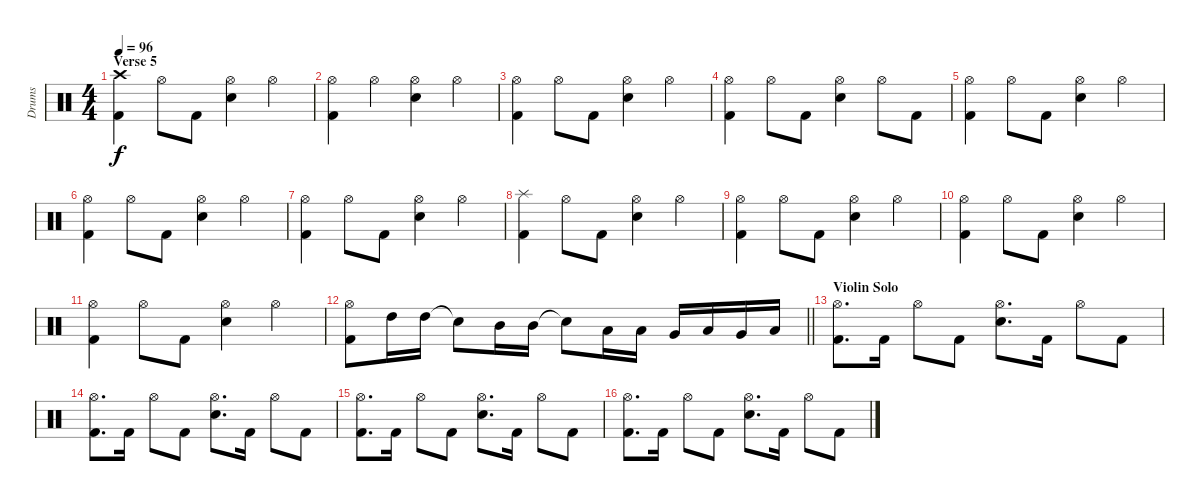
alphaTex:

\track ("Drums" "Drums") {instrument percussion}
\staff {score}
\articulation defaults
\ts (4 4)
\section ("" "Verse 5")
\tempo 96
\clef neutral
\ks c
("Crash high (hit)" "Kick (hit) 2").4{dy f} "Hi-Hat (open)".8 "Kick (hit) 2".8 ("Hi-Hat (open)" "Electric Snare (hit)").4 "Hi-Hat (open)".4 |
("Hi-Hat (open)" "Kick (hit) 2").4 "Hi-Hat (open)".4 ("Hi-Hat (open)" "Electric Snare (hit)").4 "Hi-Hat (open)".4 |
("Hi-Hat (open)" "Kick (hit) 2").4 "Hi-Hat (open)".8 "Kick (hit) 2".8 ("Hi-Hat (open)" "Electric Snare (hit)").4 "Hi-Hat (open)".4 |
("Hi-Hat (open)" "Kick (hit) 2").4 "Hi-Hat (open)".8 "Kick (hit) 2".8 ("Hi-Hat (open)" "Electric Snare (hit)").4 "Hi-Hat (open)".8 "Kick (hit) 2".8 |
("Hi-Hat (open)" "Kick (hit) 2").4 "Hi-Hat (open)".8 "Kick (hit) 2".8 ("Hi-Hat (open)" "Electric Snare (hit)").4 "Hi-Hat (open)".4 |
("Hi-Hat (open)" "Kick (hit) 2").4 "Hi-Hat (open)".8 "Kick (hit) 2".8 ("Hi-Hat (open)" "Electric Snare (hit)").4 "Hi-Hat (open)".4 |
("Hi-Hat (open)" "Kick (hit) 2").4 "Hi-Hat (open)".8 "Kick (hit) 2".8 ("Hi-Hat (open)" "Electric Snare (hit)").4 "Hi-Hat (open)".4 |
("Splash (hit)" "Kick (hit) 2").4 "Hi-Hat (open)".8 "Kick (hit) 2".8 ("Hi-Hat (open)" "Electric Snare (hit)").4 "Hi-Hat (open)".4 |
("Hi-Hat (open)" "Kick (hit) 2").4 "Hi-Hat (open)".8 "Kick (hit) 2".8 ("Hi-Hat (open)" "Electric Snare (hit)").4 "Hi-Hat (open)".4 |
("Hi-Hat (open)" "Kick (hit) 2").4 "Hi-Hat (open)".8 "Kick (hit) 2".8 ("Hi-Hat (open)" "Electric Snare (hit)").4 "Hi-Hat (open)".4 |
("Hi-Hat (open)" "Kick (hit) 2").4 "Hi-Hat (open)".8 "Kick (hit) 2".8 ("Hi-Hat (open)" "Electric Snare (hit)").4 "Hi-Hat (open)".4 |
\barLineRight lightlight
("Hi-Hat (open)" "Kick (hit) 2").8 "High Tom (hit)".16 "High Tom (hit)".16 "Snare (hit)"{t}.8 "Mid Tom (hit)".16 "Mid Tom (hit)".16 "Snare (hit)"{t}.8 "Low Tom (hit)".16 "Low Tom (hit)".16 "Very Low Tom (hit)".16 "Low Floor Tom (hit)".16 "Very Low Tom (hit)".16 "Low Floor Tom (hit)".16 |
\section ("" "Violin Solo")
("Hi-Hat (open)" "Kick (hit) 2").8{d} "Kick (hit) 2".16 "Hi-Hat (open)".8 "Kick (hit) 2".8 ("Hi-Hat (open)" "Electric Snare (hit)").8{d} "Kick (hit) 2".16 "Hi-Hat (open)".8 "Kick (hit) 2".8 |
("Hi-Hat (open)" "Kick (hit) 2").8{d} "Kick (hit) 2".16 "Hi-Hat (open)".8 "Kick (hit) 2".8 ("Hi-Hat (open)" "Electric Snare (hit)").8{d} "Kick (hit) 2".16 "Hi-Hat (open)".8 "Kick (hit) 2".8 |
("Hi-Hat (open)" "Kick (hit) 2").8{d} "Kick (hit) 2".16 "Hi-Hat (open)".8 "Kick (hit) 2".8 ("Hi-Hat (open)" "Electric Snare (hit)").8{d} "Kick (hit) 2".16 "Hi-Hat (open)".8 "Kick (hit) 2".8 |
("Hi-Hat (open)" "Kick (hit) 2").8{d} "Kick (hit) 2".16 "Hi-Hat (open)".8 "Kick (hit) 2".8 ("Hi-Hat (open)" "Electric Snare (hit)").8{d} "Kick (hit) 2".16 "Hi-Hat (open)".8 "Kick (hit) 2".8
